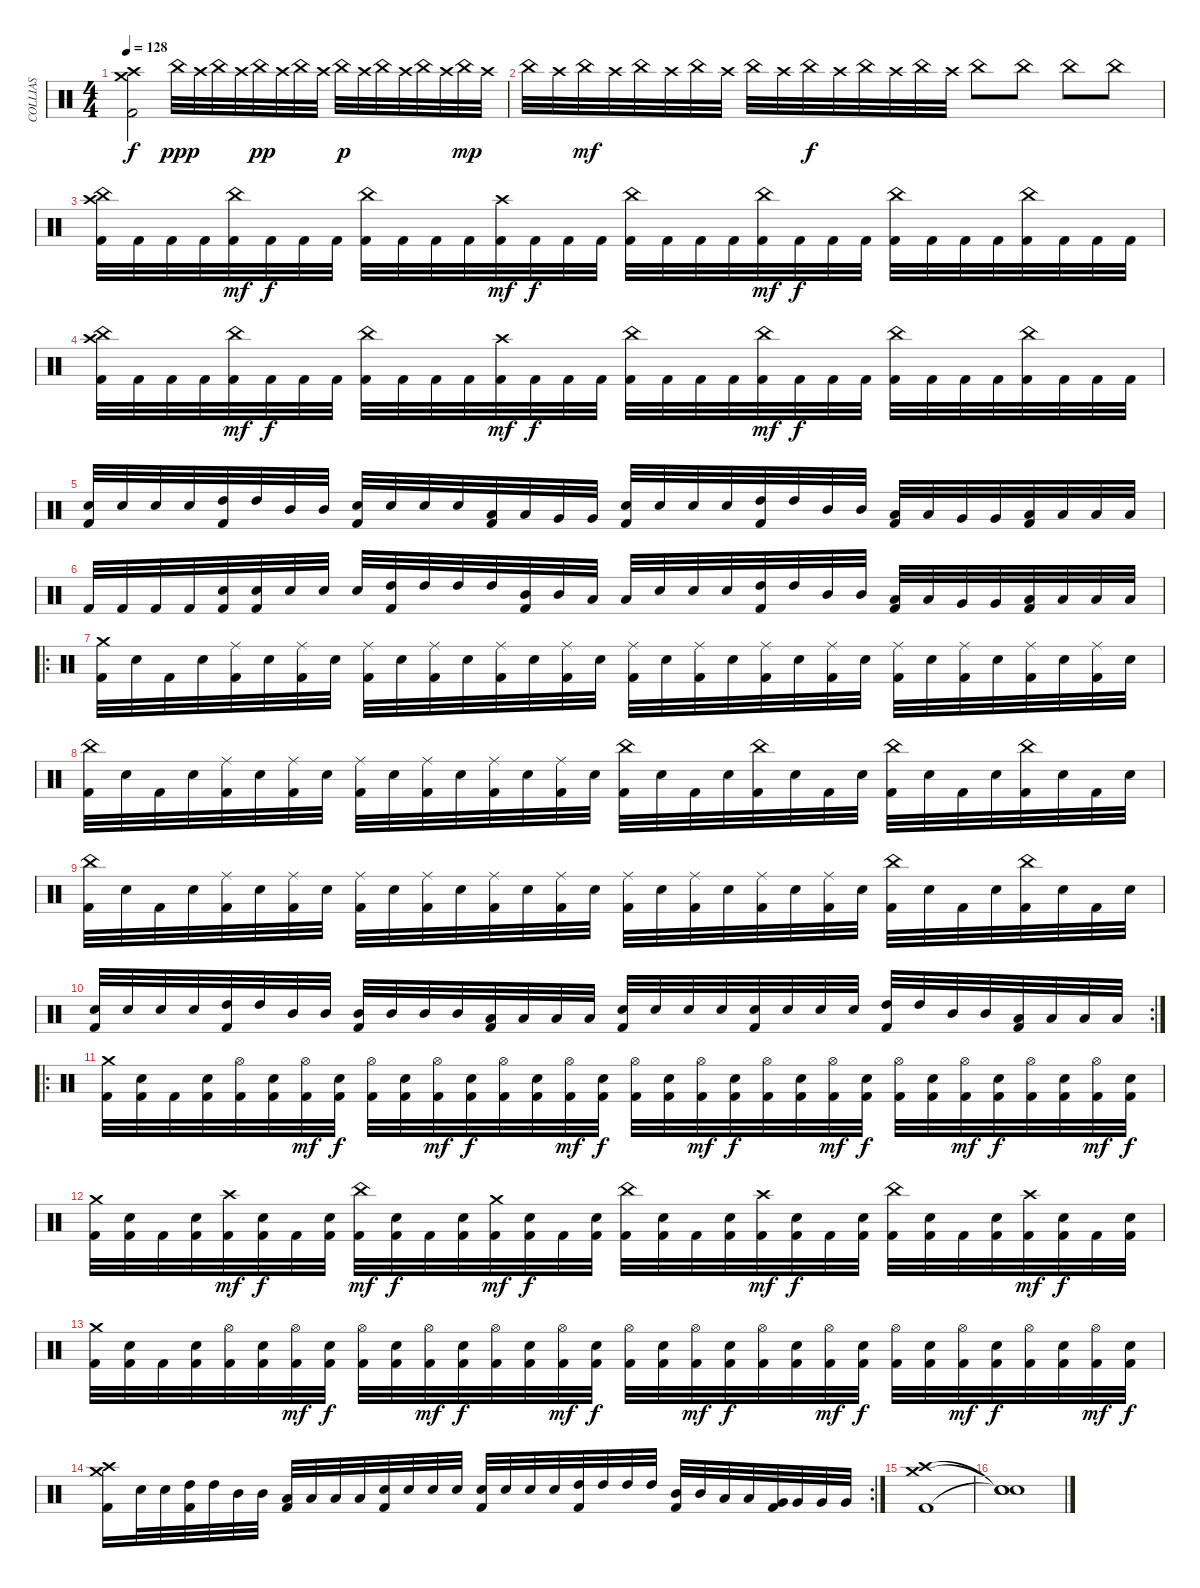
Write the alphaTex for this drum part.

\track ("COLLIAS" "COLLIAS") {instrument percussion}
\staff
\articulation defaults
\ts (4 4)
\tempo 128
\clef neutral
\ks c
("Crash medium (hit)" "Crash high (hit)" "Kick (hit) 2").2{dy f} "China (hit)".32{dy ppp} "Crash high (hit)".32 "China (hit)".32 "Crash high (hit)".32 "China (hit)".32{dy pp} "Crash high (hit)".32 "China (hit)".32 "Crash high (hit)".32 "China (hit)".32{dy p} "Crash high (hit)".32 "China (hit)".32 "Crash high (hit)".32 "China (hit)".32 "Crash high (hit)".32 "China (hit)".32{dy mp} "Crash high (hit)".32 |
"China (hit)".32 "Crash high (hit)".32 "China (hit)".32{dy mf} "Crash high (hit)".32 "China (hit)".32 "Crash high (hit)".32 "China (hit)".32 "Crash high (hit)".32 "China (hit)".32 "Crash high (hit)".32 "China (hit)".32{dy f} "Crash high (hit)".32 "China (hit)".32 "Crash high (hit)".32 "China (hit)".32 "Crash high (hit)".32 "China (hit)".8 "China (hit)".8 "China (hit)".8 "China (hit)".8 |
("China (hit)" "Crash high (hit)" "Kick (hit) 2").32 "Kick (hit) 2".32 "Kick (hit) 2".32 "Kick (hit) 2".32 ("China (hit)" "Kick (hit) 2").32{dy mf} "Kick (hit) 2".32{dy f} "Kick (hit) 2".32 "Kick (hit) 2".32 ("China (hit)" "Kick (hit) 2").32 "Kick (hit) 2".32 "Kick (hit) 2".32 "Kick (hit) 2".32 ("Crash high (hit)" "Kick (hit) 2").32{dy mf} "Kick (hit) 2".32{dy f} "Kick (hit) 2".32 "Kick (hit) 2".32 ("China (hit)" "Kick (hit) 2").32 "Kick (hit) 2".32 "Kick (hit) 2".32 "Kick (hit) 2".32 ("China (hit)" "Kick (hit) 2").32{dy mf} "Kick (hit) 2".32{dy f} "Kick (hit) 2".32 "Kick (hit) 2".32 ("China (hit)" "Kick (hit) 2").32 "Kick (hit) 2".32 "Kick (hit) 2".32 "Kick (hit) 2".32 ("China (hit)" "Kick (hit) 2").32 "Kick (hit) 2".32 "Kick (hit) 2".32 "Kick (hit) 2".32 |
("China (hit)" "Crash high (hit)" "Kick (hit) 2").32 "Kick (hit) 2".32 "Kick (hit) 2".32 "Kick (hit) 2".32 ("China (hit)" "Kick (hit) 2").32{dy mf} "Kick (hit) 2".32{dy f} "Kick (hit) 2".32 "Kick (hit) 2".32 ("China (hit)" "Kick (hit) 2").32 "Kick (hit) 2".32 "Kick (hit) 2".32 "Kick (hit) 2".32 ("Crash high (hit)" "Kick (hit) 2").32{dy mf} "Kick (hit) 2".32{dy f} "Kick (hit) 2".32 "Kick (hit) 2".32 ("China (hit)" "Kick (hit) 2").32 "Kick (hit) 2".32 "Kick (hit) 2".32 "Kick (hit) 2".32 ("China (hit)" "Kick (hit) 2").32{dy mf} "Kick (hit) 2".32{dy f} "Kick (hit) 2".32 "Kick (hit) 2".32 ("China (hit)" "Kick (hit) 2").32 "Kick (hit) 2".32 "Kick (hit) 2".32 "Kick (hit) 2".32 ("China (hit)" "Kick (hit) 2").32 "Kick (hit) 2".32 "Kick (hit) 2".32 "Kick (hit) 2".32 |
("Electric Snare (hit)" "Kick (hit) 2").32 "Electric Snare (hit)".32 "Electric Snare (hit)".32 "Electric Snare (hit)".32 ("High Tom (hit)" "Kick (hit) 2").32 "High Tom (hit)".32 "Mid Tom (hit)".32 "Mid Tom (hit)".32 ("Electric Snare (hit)" "Kick (hit) 2").32 "Electric Snare (hit)".32 "Electric Snare (hit)".32 "Electric Snare (hit)".32 ("Low Tom (hit)" "Kick (hit) 2").32 "Low Tom (hit)".32 "Very Low Tom (hit)".32 "Very Low Tom (hit)".32 ("Electric Snare (hit)" "Kick (hit) 2").32 "Electric Snare (hit)".32 "Electric Snare (hit)".32 "Electric Snare (hit)".32 ("High Tom (hit)" "Kick (hit) 2").32 "High Tom (hit)".32 "Mid Tom (hit)".32 "Mid Tom (hit)".32 ("Low Tom (hit)" "Kick (hit) 2").32 "Low Tom (hit)".32 "Very Low Tom (hit)".32 "Very Low Tom (hit)".32 ("Low Floor Tom (hit)" "Kick (hit) 2").32 "Low Floor Tom (hit)".32 "Low Floor Tom (hit)".32 "Low Floor Tom (hit)".32 |
"Kick (hit) 2".32 "Kick (hit) 2".32 "Kick (hit) 2".32 "Kick (hit) 2".32 ("Electric Snare (hit)" "Kick (hit) 2").32 ("Electric Snare (hit)" "Kick (hit) 2").32 "Electric Snare (hit)".32 "Electric Snare (hit)".32 "Electric Snare (hit)".32 ("High Tom (hit)" "Kick (hit) 2").32 "High Tom (hit)".32 "High Tom (hit)".32 "High Tom (hit)".32 ("Mid Tom (hit)" "Kick (hit) 2").32 "Mid Tom (hit)".32 "Low Tom (hit)".32 "Low Tom (hit)".32 "Electric Snare (hit)".32 "Electric Snare (hit)".32 "Electric Snare (hit)".32 ("High Tom (hit)" "Kick (hit) 2").32 "High Tom (hit)".32 "Mid Tom (hit)".32 "Mid Tom (hit)".32 ("Low Tom (hit)" "Kick (hit) 2").32 "Low Tom (hit)".32 "Very Low Tom (hit)".32 "Very Low Tom (hit)".32 ("Low Floor Tom (hit)" "Kick (hit) 2").32 "Low Floor Tom (hit)".32 "Low Floor Tom (hit)".32 "Low Floor Tom (hit)".32 |
\ro
("Crash medium (hit)" "Kick (hit) 2").32 "Electric Snare (hit)".32 "Kick (hit) 2".32 "Electric Snare (hit)".32 ("Ride (middle)" "Kick (hit) 2").32 "Electric Snare (hit)".32 ("Ride (middle)" "Kick (hit) 2").32 "Electric Snare (hit)".32 ("Ride (middle)" "Kick (hit) 2").32 "Electric Snare (hit)".32 ("Ride (middle)" "Kick (hit) 2").32 "Electric Snare (hit)".32 ("Ride (middle)" "Kick (hit) 2").32 "Electric Snare (hit)".32 ("Ride (middle)" "Kick (hit) 2").32 "Electric Snare (hit)".32 ("Ride (middle)" "Kick (hit) 2").32 "Electric Snare (hit)".32 ("Ride (middle)" "Kick (hit) 2").32 "Electric Snare (hit)".32 ("Ride (middle)" "Kick (hit) 2").32 "Electric Snare (hit)".32 ("Ride (middle)" "Kick (hit) 2").32 "Electric Snare (hit)".32 ("Ride (middle)" "Kick (hit) 2").32 "Electric Snare (hit)".32 ("Ride (middle)" "Kick (hit) 2").32 "Electric Snare (hit)".32 ("Ride (middle)" "Kick (hit) 2").32 "Electric Snare (hit)".32 ("Ride (middle)" "Kick (hit) 2").32 "Electric Snare (hit)".32 |
("China (hit)" "Kick (hit) 2").32 "Electric Snare (hit)".32 "Kick (hit) 2".32 "Electric Snare (hit)".32 ("Ride (middle)" "Kick (hit) 2").32 "Electric Snare (hit)".32 ("Ride (middle)" "Kick (hit) 2").32 "Electric Snare (hit)".32 ("Ride (middle)" "Kick (hit) 2").32 "Electric Snare (hit)".32 ("Ride (middle)" "Kick (hit) 2").32 "Electric Snare (hit)".32 ("Ride (middle)" "Kick (hit) 2").32 "Electric Snare (hit)".32 ("Ride (middle)" "Kick (hit) 2").32 "Electric Snare (hit)".32 ("China (hit)" "Kick (hit) 2").32 "Electric Snare (hit)".32 "Kick (hit) 2".32 "Electric Snare (hit)".32 ("China (hit)" "Kick (hit) 2").32 "Electric Snare (hit)".32 "Kick (hit) 2".32 "Electric Snare (hit)".32 ("China (hit)" "Kick (hit) 2").32 "Electric Snare (hit)".32 "Kick (hit) 2".32 "Electric Snare (hit)".32 ("China (hit)" "Kick (hit) 2").32 "Electric Snare (hit)".32 "Kick (hit) 2".32 "Electric Snare (hit)".32 |
("China (hit)" "Kick (hit) 2").32 "Electric Snare (hit)".32 "Kick (hit) 2".32 "Electric Snare (hit)".32 ("Ride (middle)" "Kick (hit) 2").32 "Electric Snare (hit)".32 ("Ride (middle)" "Kick (hit) 2").32 "Electric Snare (hit)".32 ("Ride (middle)" "Kick (hit) 2").32 "Electric Snare (hit)".32 ("Ride (middle)" "Kick (hit) 2").32 "Electric Snare (hit)".32 ("Ride (middle)" "Kick (hit) 2").32 "Electric Snare (hit)".32 ("Ride (middle)" "Kick (hit) 2").32 "Electric Snare (hit)".32 ("Ride (middle)" "Kick (hit) 2").32 "Electric Snare (hit)".32 ("Ride (middle)" "Kick (hit) 2").32 "Electric Snare (hit)".32 ("Ride (middle)" "Kick (hit) 2").32 "Electric Snare (hit)".32 ("Ride (middle)" "Kick (hit) 2").32 "Electric Snare (hit)".32 ("China (hit)" "Kick (hit) 2").32 "Electric Snare (hit)".32 "Kick (hit) 2".32 "Electric Snare (hit)".32 ("China (hit)" "Kick (hit) 2").32 "Electric Snare (hit)".32 "Kick (hit) 2".32 "Electric Snare (hit)".32 |
\rc 2
("Electric Snare (hit)" "Kick (hit) 2").32 "Electric Snare (hit)".32 "Electric Snare (hit)".32 "Electric Snare (hit)".32 ("High Tom (hit)" "Kick (hit) 2").32 "High Tom (hit)".32 "Mid Tom (hit)".32 "Mid Tom (hit)".32 ("Mid Tom (hit)" "Kick (hit) 2").32 "Mid Tom (hit)".32 "Mid Tom (hit)".32 "Mid Tom (hit)".32 ("Low Tom (hit)" "Kick (hit) 2").32 "Low Tom (hit)".32 "Low Tom (hit)".32 "Low Tom (hit)".32 ("Electric Snare (hit)" "Kick (hit) 2").32 "Electric Snare (hit)".32 "Electric Snare (hit)".32 "Electric Snare (hit)".32 ("Electric Snare (hit)" "Kick (hit) 2").32 "Electric Snare (hit)".32 "Electric Snare (hit)".32 "Electric Snare (hit)".32 ("High Tom (hit)" "Kick (hit) 2").32 "High Tom (hit)".32 "Mid Tom (hit)".32 "Mid Tom (hit)".32 ("Low Tom (hit)" "Kick (hit) 2").32 "Low Tom (hit)".32 "Low Tom (hit)".32 "Low Tom (hit)".32 |
\ro
("Crash medium (hit)" "Kick (hit) 2").32 ("Electric Snare (hit)" "Kick (hit) 2").32 "Kick (hit) 2".32 ("Electric Snare (hit)" "Kick (hit) 2").32 ("Hi-Hat (open)" "Kick (hit) 2").32 ("Electric Snare (hit)" "Kick (hit) 2").32 ("Hi-Hat (open)" "Kick (hit) 2").32{dy mf} ("Electric Snare (hit)" "Kick (hit) 2").32{dy f} ("Hi-Hat (open)" "Kick (hit) 2").32 ("Electric Snare (hit)" "Kick (hit) 2").32 ("Hi-Hat (open)" "Kick (hit) 2").32{dy mf} ("Electric Snare (hit)" "Kick (hit) 2").32{dy f} ("Hi-Hat (open)" "Kick (hit) 2").32 ("Electric Snare (hit)" "Kick (hit) 2").32 ("Hi-Hat (open)" "Kick (hit) 2").32{dy mf} ("Electric Snare (hit)" "Kick (hit) 2").32{dy f} ("Hi-Hat (open)" "Kick (hit) 2").32 ("Electric Snare (hit)" "Kick (hit) 2").32 ("Hi-Hat (open)" "Kick (hit) 2").32{dy mf} ("Electric Snare (hit)" "Kick (hit) 2").32{dy f} ("Hi-Hat (open)" "Kick (hit) 2").32 ("Electric Snare (hit)" "Kick (hit) 2").32 ("Hi-Hat (open)" "Kick (hit) 2").32{dy mf} ("Electric Snare (hit)" "Kick (hit) 2").32{dy f} ("Hi-Hat (open)" "Kick (hit) 2").32 ("Electric Snare (hit)" "Kick (hit) 2").32 ("Hi-Hat (open)" "Kick (hit) 2").32{dy mf} ("Electric Snare (hit)" "Kick (hit) 2").32{dy f} ("Hi-Hat (open)" "Kick (hit) 2").32 ("Electric Snare (hit)" "Kick (hit) 2").32 ("Hi-Hat (open)" "Kick (hit) 2").32{dy mf} ("Electric Snare (hit)" "Kick (hit) 2").32{dy f} |
("Crash medium (hit)" "Kick (hit) 2").32 ("Electric Snare (hit)" "Kick (hit) 2").32 "Kick (hit) 2".32 ("Electric Snare (hit)" "Kick (hit) 2").32 ("Crash high (hit)" "Kick (hit) 2").32{dy mf} ("Electric Snare (hit)" "Kick (hit) 2").32{dy f} "Kick (hit) 2".32 ("Electric Snare (hit)" "Kick (hit) 2").32 ("China (hit)" "Kick (hit) 2").32{dy mf} ("Electric Snare (hit)" "Kick (hit) 2").32{dy f} "Kick (hit) 2".32 ("Electric Snare (hit)" "Kick (hit) 2").32 ("Crash medium (hit)" "Kick (hit) 2").32{dy mf} ("Electric Snare (hit)" "Kick (hit) 2").32{dy f} "Kick (hit) 2".32 ("Electric Snare (hit)" "Kick (hit) 2").32 ("China (hit)" "Kick (hit) 2").32 ("Electric Snare (hit)" "Kick (hit) 2").32 "Kick (hit) 2".32 ("Electric Snare (hit)" "Kick (hit) 2").32 ("Crash high (hit)" "Kick (hit) 2").32{dy mf} ("Electric Snare (hit)" "Kick (hit) 2").32{dy f} "Kick (hit) 2".32 ("Electric Snare (hit)" "Kick (hit) 2").32 ("China (hit)" "Kick (hit) 2").32 ("Electric Snare (hit)" "Kick (hit) 2").32 "Kick (hit) 2".32 ("Electric Snare (hit)" "Kick (hit) 2").32 ("Crash high (hit)" "Kick (hit) 2").32{dy mf} ("Electric Snare (hit)" "Kick (hit) 2").32{dy f} "Kick (hit) 2".32 ("Electric Snare (hit)" "Kick (hit) 2").32 |
("Crash medium (hit)" "Kick (hit) 2").32 ("Electric Snare (hit)" "Kick (hit) 2").32 "Kick (hit) 2".32 ("Electric Snare (hit)" "Kick (hit) 2").32 ("Hi-Hat (open)" "Kick (hit) 2").32 ("Electric Snare (hit)" "Kick (hit) 2").32 ("Hi-Hat (open)" "Kick (hit) 2").32{dy mf} ("Electric Snare (hit)" "Kick (hit) 2").32{dy f} ("Hi-Hat (open)" "Kick (hit) 2").32 ("Electric Snare (hit)" "Kick (hit) 2").32 ("Hi-Hat (open)" "Kick (hit) 2").32{dy mf} ("Electric Snare (hit)" "Kick (hit) 2").32{dy f} ("Hi-Hat (open)" "Kick (hit) 2").32 ("Electric Snare (hit)" "Kick (hit) 2").32 ("Hi-Hat (open)" "Kick (hit) 2").32{dy mf} ("Electric Snare (hit)" "Kick (hit) 2").32{dy f} ("Hi-Hat (open)" "Kick (hit) 2").32 ("Electric Snare (hit)" "Kick (hit) 2").32 ("Hi-Hat (open)" "Kick (hit) 2").32{dy mf} ("Electric Snare (hit)" "Kick (hit) 2").32{dy f} ("Hi-Hat (open)" "Kick (hit) 2").32 ("Electric Snare (hit)" "Kick (hit) 2").32 ("Hi-Hat (open)" "Kick (hit) 2").32{dy mf} ("Electric Snare (hit)" "Kick (hit) 2").32{dy f} ("Hi-Hat (open)" "Kick (hit) 2").32 ("Electric Snare (hit)" "Kick (hit) 2").32 ("Hi-Hat (open)" "Kick (hit) 2").32{dy mf} ("Electric Snare (hit)" "Kick (hit) 2").32{dy f} ("Hi-Hat (open)" "Kick (hit) 2").32 ("Electric Snare (hit)" "Kick (hit) 2").32 ("Hi-Hat (open)" "Kick (hit) 2").32{dy mf} ("Electric Snare (hit)" "Kick (hit) 2").32{dy f} |
\rc 2
("Crash medium (hit)" "Crash high (hit)" "Kick (hit) 2").16 "Electric Snare (hit)".32 "Electric Snare (hit)".32 ("High Tom (hit)" "Kick (hit) 2").32 "High Tom (hit)".32 "Mid Tom (hit)".32 "Mid Tom (hit)".32 ("Low Tom (hit)" "Kick (hit) 2").32 "Low Tom (hit)".32 "Low Tom (hit)".32 "Low Tom (hit)".32 ("Electric Snare (hit)" "Kick (hit) 2").32 "Electric Snare (hit)".32 "Electric Snare (hit)".32 "Electric Snare (hit)".32 ("Electric Snare (hit)" "Kick (hit) 2").32 "Electric Snare (hit)".32 "Electric Snare (hit)".32 "Electric Snare (hit)".32 ("High Tom (hit)" "Kick (hit) 2").32 "High Tom (hit)".32 "High Tom (hit)".32 "High Tom (hit)".32 ("Mid Tom (hit)" "Kick (hit) 2").32 "Mid Tom (hit)".32 "Low Tom (hit)".32 "Low Tom (hit)".32 ("Very Low Tom (hit)" "Kick (hit) 2").32 "Very Low Tom (hit)".32 "Very Low Tom (hit)".32 "Very Low Tom (hit)".32 |
("Crash high (hit)" "Crash medium (hit)" "Kick (hit) 2").1 |
("Snare (hit)"{t} "Snare (hit)"{t} "Snare (hit)"{t}).1
